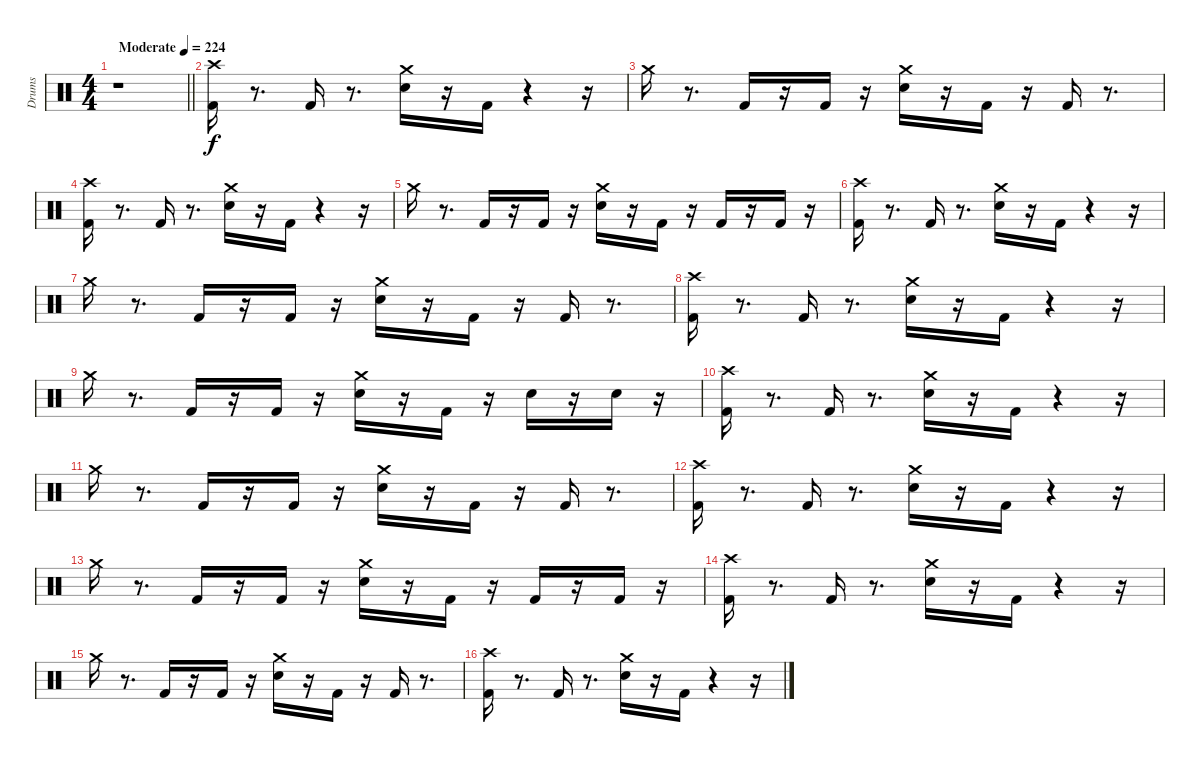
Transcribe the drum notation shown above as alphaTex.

\track ("Drums" "Drums") {instrument percussion}
\staff {score}
\articulation defaults
\ts (4 4)
\tempo (224 "Moderate")
\clef neutral
\barLineRight lightlight
\ks c
r.1{dy f} |
\section ("" " ")
("Kick (hit) 2" "Crash high (hit)").16 r.8{d} "Kick (hit) 2".16 r.8{d} ("Snare (hit) 2" "Crash medium (hit)").16 r.16 "Kick (hit) 2".16 r.4 r.16 |
"Crash medium (hit)".16 r.8{d} "Kick (hit) 2".16 r.16 "Kick (hit) 2".16 r.16 ("Snare (hit) 2" "Crash medium (hit)").16 r.16 "Kick (hit) 2".16 r.16 "Kick (hit) 2".16 r.8{d} |
("Kick (hit) 2" "Crash high (hit)").16 r.8{d} "Kick (hit) 2".16 r.8{d} ("Snare (hit) 2" "Crash medium (hit)").16 r.16 "Kick (hit) 2".16 r.4 r.16 |
"Crash medium (hit)".16 r.8{d} "Kick (hit) 2".16 r.16 "Kick (hit) 2".16 r.16 ("Snare (hit) 2" "Crash medium (hit)").16 r.16 "Kick (hit) 2".16 r.16 "Kick (hit) 2".16 r.16 "Kick (hit) 2".16 r.16 |
("Kick (hit) 2" "Crash high (hit)").16 r.8{d} "Kick (hit) 2".16 r.8{d} ("Snare (hit) 2" "Crash medium (hit)").16 r.16 "Kick (hit) 2".16 r.4 r.16 |
"Crash medium (hit)".16 r.8{d} "Kick (hit) 2".16 r.16 "Kick (hit) 2".16 r.16 ("Snare (hit) 2" "Crash medium (hit)").16 r.16 "Kick (hit) 2".16 r.16 "Kick (hit) 2".16 r.8{d} |
("Kick (hit) 2" "Crash high (hit)").16 r.8{d} "Kick (hit) 2".16 r.8{d} ("Snare (hit) 2" "Crash medium (hit)").16 r.16 "Kick (hit) 2".16 r.4 r.16 |
"Crash medium (hit)".16 r.8{d} "Kick (hit) 2".16 r.16 "Kick (hit) 2".16 r.16 ("Snare (hit) 2" "Crash medium (hit)").16 r.16 "Kick (hit) 2".16 r.16 "Snare (hit) 2".16 r.16 "Snare (hit) 2".16 r.16 |
("Kick (hit) 2" "Crash high (hit)").16 r.8{d} "Kick (hit) 2".16 r.8{d} ("Snare (hit) 2" "Crash medium (hit)").16 r.16 "Kick (hit) 2".16 r.4 r.16 |
"Crash medium (hit)".16 r.8{d} "Kick (hit) 2".16 r.16 "Kick (hit) 2".16 r.16 ("Snare (hit) 2" "Crash medium (hit)").16 r.16 "Kick (hit) 2".16 r.16 "Kick (hit) 2".16 r.8{d} |
("Kick (hit) 2" "Crash high (hit)").16 r.8{d} "Kick (hit) 2".16 r.8{d} ("Snare (hit) 2" "Crash medium (hit)").16 r.16 "Kick (hit) 2".16 r.4 r.16 |
"Crash medium (hit)".16 r.8{d} "Kick (hit) 2".16 r.16 "Kick (hit) 2".16 r.16 ("Snare (hit) 2" "Crash medium (hit)").16 r.16 "Kick (hit) 2".16 r.16 "Kick (hit) 2".16 r.16 "Kick (hit) 2".16 r.16 |
("Kick (hit) 2" "Crash high (hit)").16 r.8{d} "Kick (hit) 2".16 r.8{d} ("Snare (hit) 2" "Crash medium (hit)").16 r.16 "Kick (hit) 2".16 r.4 r.16 |
"Crash medium (hit)".16 r.8{d} "Kick (hit) 2".16 r.16 "Kick (hit) 2".16 r.16 ("Snare (hit) 2" "Crash medium (hit)").16 r.16 "Kick (hit) 2".16 r.16 "Kick (hit) 2".16 r.8{d} |
("Kick (hit) 2" "Crash high (hit)").16 r.8{d} "Kick (hit) 2".16 r.8{d} ("Snare (hit) 2" "Crash medium (hit)").16 r.16 "Kick (hit) 2".16 r.4 r.16
